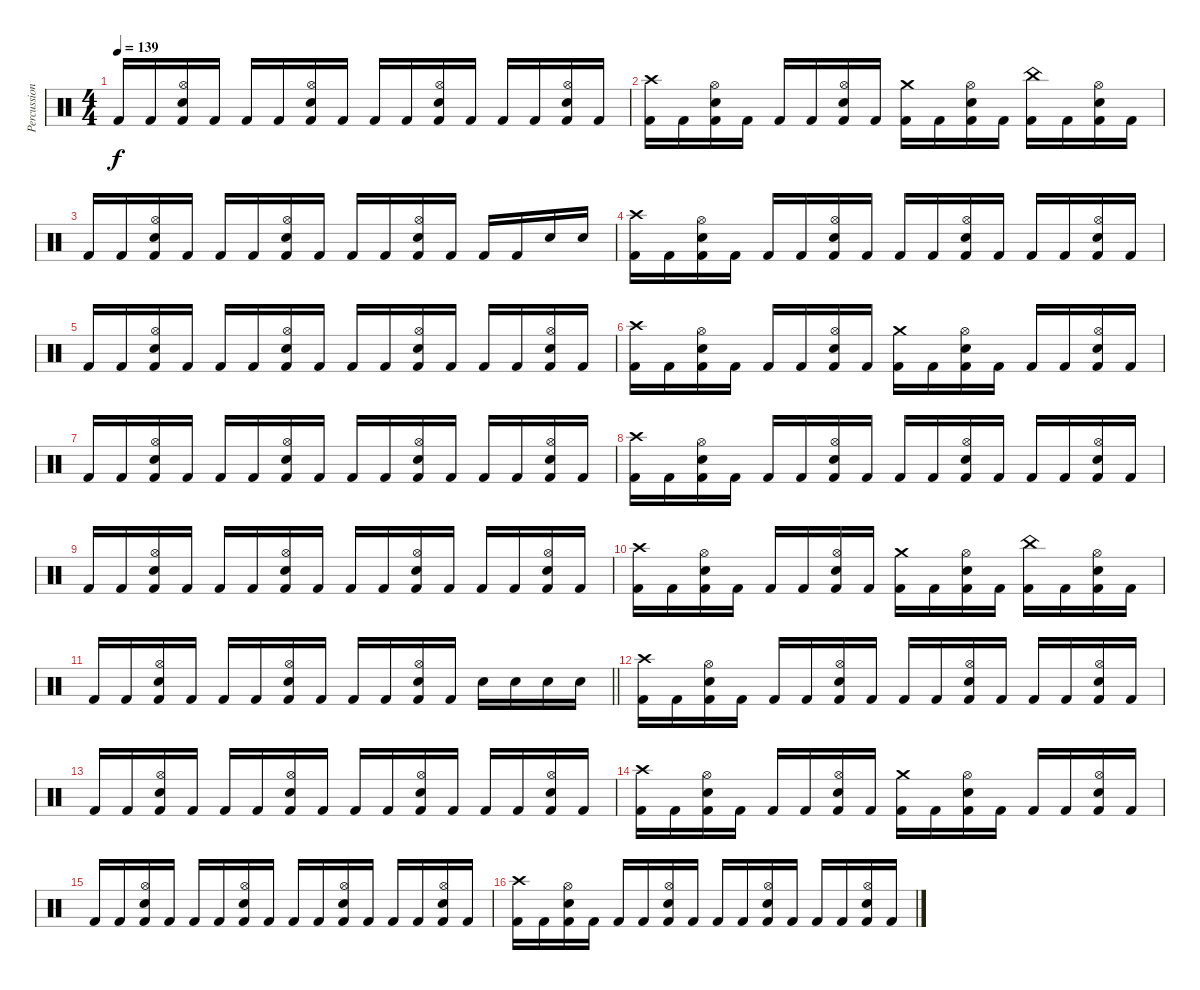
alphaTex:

\track ("Percussion" "Percussion") {instrument percussion}
\staff {score}
\articulation defaults
\ts (4 4)
\tempo 139
\clef neutral
\ks c "Kick (hit) 2".16{dy f} "Kick (hit) 2".16
("Hi-Hat (open)" "Electric Snare (hit)" "Kick (hit) 2").16 "Kick (hit) 2".16 "Kick (hit) 2".16 "Kick (hit) 2".16 ("Hi-Hat (open)" "Electric Snare (hit)" "Kick (hit) 2").16 "Kick (hit) 2".16 "Kick (hit) 2".16 "Kick (hit) 2".16 ("Hi-Hat (open)" "Electric Snare (hit)" "Kick (hit) 2").16 "Kick (hit) 2".16 "Kick (hit) 2".16 "Kick (hit) 2".16 ("Hi-Hat (open)" "Electric Snare (hit)" "Kick (hit) 2").16 "Kick (hit) 2".16 |
("Crash high (hit)" "Kick (hit) 2").16 "Kick (hit) 2".16 ("Hi-Hat (open)" "Electric Snare (hit)" "Kick (hit) 2").16 "Kick (hit) 2".16 "Kick (hit) 2".16 "Kick (hit) 2".16 ("Hi-Hat (open)" "Electric Snare (hit)" "Kick (hit) 2").16 "Kick (hit) 2".16 ("Crash medium (hit)" "Kick (hit) 2").16 "Kick (hit) 2".16 ("Hi-Hat (open)" "Electric Snare (hit)" "Kick (hit) 2").16 "Kick (hit) 2".16 ("China (hit)" "Kick (hit) 2").16 "Kick (hit) 2".16 ("Hi-Hat (open)" "Electric Snare (hit)" "Kick (hit) 2").16 "Kick (hit) 2".16 |
"Kick (hit) 2".16 "Kick (hit) 2".16 ("Hi-Hat (open)" "Electric Snare (hit)" "Kick (hit) 2").16 "Kick (hit) 2".16 "Kick (hit) 2".16 "Kick (hit) 2".16 ("Hi-Hat (open)" "Electric Snare (hit)" "Kick (hit) 2").16 "Kick (hit) 2".16 "Kick (hit) 2".16 "Kick (hit) 2".16 ("Hi-Hat (open)" "Electric Snare (hit)" "Kick (hit) 2").16 "Kick (hit) 2".16 "Kick (hit) 2".16 "Kick (hit) 2".16 "Electric Snare (hit)".16 "Electric Snare (hit)".16 |
("Crash high (hit)" "Kick (hit) 2").16 "Kick (hit) 2".16 ("Hi-Hat (open)" "Electric Snare (hit)" "Kick (hit) 2").16 "Kick (hit) 2".16 "Kick (hit) 2".16 "Kick (hit) 2".16 ("Hi-Hat (open)" "Electric Snare (hit)" "Kick (hit) 2").16 "Kick (hit) 2".16 "Kick (hit) 2".16 "Kick (hit) 2".16 ("Hi-Hat (open)" "Electric Snare (hit)" "Kick (hit) 2").16 "Kick (hit) 2".16 "Kick (hit) 2".16 "Kick (hit) 2".16 ("Hi-Hat (open)" "Electric Snare (hit)" "Kick (hit) 2").16 "Kick (hit) 2".16 |
"Kick (hit) 2".16 "Kick (hit) 2".16 ("Hi-Hat (open)" "Electric Snare (hit)" "Kick (hit) 2").16 "Kick (hit) 2".16 "Kick (hit) 2".16 "Kick (hit) 2".16 ("Hi-Hat (open)" "Electric Snare (hit)" "Kick (hit) 2").16 "Kick (hit) 2".16 "Kick (hit) 2".16 "Kick (hit) 2".16 ("Hi-Hat (open)" "Electric Snare (hit)" "Kick (hit) 2").16 "Kick (hit) 2".16 "Kick (hit) 2".16 "Kick (hit) 2".16 ("Hi-Hat (open)" "Electric Snare (hit)" "Kick (hit) 2").16 "Kick (hit) 2".16 |
("Crash high (hit)" "Kick (hit) 2").16 "Kick (hit) 2".16 ("Hi-Hat (open)" "Electric Snare (hit)" "Kick (hit) 2").16 "Kick (hit) 2".16 "Kick (hit) 2".16 "Kick (hit) 2".16 ("Hi-Hat (open)" "Electric Snare (hit)" "Kick (hit) 2").16 "Kick (hit) 2".16 ("Crash medium (hit)" "Kick (hit) 2").16 "Kick (hit) 2".16 ("Hi-Hat (open)" "Electric Snare (hit)" "Kick (hit) 2").16 "Kick (hit) 2".16 "Kick (hit) 2".16 "Kick (hit) 2".16 ("Hi-Hat (open)" "Electric Snare (hit)" "Kick (hit) 2").16 "Kick (hit) 2".16 |
"Kick (hit) 2".16 "Kick (hit) 2".16 ("Hi-Hat (open)" "Electric Snare (hit)" "Kick (hit) 2").16 "Kick (hit) 2".16 "Kick (hit) 2".16 "Kick (hit) 2".16 ("Hi-Hat (open)" "Electric Snare (hit)" "Kick (hit) 2").16 "Kick (hit) 2".16 "Kick (hit) 2".16 "Kick (hit) 2".16 ("Hi-Hat (open)" "Electric Snare (hit)" "Kick (hit) 2").16 "Kick (hit) 2".16 "Kick (hit) 2".16 "Kick (hit) 2".16 ("Hi-Hat (open)" "Electric Snare (hit)" "Kick (hit) 2").16 "Kick (hit) 2".16 |
("Crash high (hit)" "Kick (hit) 2").16 "Kick (hit) 2".16 ("Hi-Hat (open)" "Electric Snare (hit)" "Kick (hit) 2").16 "Kick (hit) 2".16 "Kick (hit) 2".16 "Kick (hit) 2".16 ("Hi-Hat (open)" "Electric Snare (hit)" "Kick (hit) 2").16 "Kick (hit) 2".16 "Kick (hit) 2".16 "Kick (hit) 2".16 ("Hi-Hat (open)" "Electric Snare (hit)" "Kick (hit) 2").16 "Kick (hit) 2".16 "Kick (hit) 2".16 "Kick (hit) 2".16 ("Hi-Hat (open)" "Electric Snare (hit)" "Kick (hit) 2").16 "Kick (hit) 2".16 |
"Kick (hit) 2".16 "Kick (hit) 2".16 ("Hi-Hat (open)" "Electric Snare (hit)" "Kick (hit) 2").16 "Kick (hit) 2".16 "Kick (hit) 2".16 "Kick (hit) 2".16 ("Hi-Hat (open)" "Electric Snare (hit)" "Kick (hit) 2").16 "Kick (hit) 2".16 "Kick (hit) 2".16 "Kick (hit) 2".16 ("Hi-Hat (open)" "Electric Snare (hit)" "Kick (hit) 2").16 "Kick (hit) 2".16 "Kick (hit) 2".16 "Kick (hit) 2".16 ("Hi-Hat (open)" "Electric Snare (hit)" "Kick (hit) 2").16 "Kick (hit) 2".16 |
("Crash high (hit)" "Kick (hit) 2").16 "Kick (hit) 2".16 ("Hi-Hat (open)" "Electric Snare (hit)" "Kick (hit) 2").16 "Kick (hit) 2".16 "Kick (hit) 2".16 "Kick (hit) 2".16 ("Hi-Hat (open)" "Electric Snare (hit)" "Kick (hit) 2").16 "Kick (hit) 2".16 ("Crash medium (hit)" "Kick (hit) 2").16 "Kick (hit) 2".16 ("Hi-Hat (open)" "Electric Snare (hit)" "Kick (hit) 2").16 "Kick (hit) 2".16 ("China (hit)" "Kick (hit) 2").16 "Kick (hit) 2".16 ("Hi-Hat (open)" "Electric Snare (hit)" "Kick (hit) 2").16 "Kick (hit) 2".16 |
\barLineRight lightlight "Kick (hit) 2".16 "Kick (hit) 2".16
("Hi-Hat (open)" "Electric Snare (hit)" "Kick (hit) 2").16 "Kick (hit) 2".16 "Kick (hit) 2".16 "Kick (hit) 2".16 ("Hi-Hat (open)" "Electric Snare (hit)" "Kick (hit) 2").16 "Kick (hit) 2".16 "Kick (hit) 2".16 "Kick (hit) 2".16 ("Hi-Hat (open)" "Electric Snare (hit)" "Kick (hit) 2").16 "Kick (hit) 2".16 "Electric Snare (hit)".16 "Electric Snare (hit)".16 "Electric Snare (hit)".16 "Electric Snare (hit)".16 |
("Crash high (hit)" "Kick (hit) 2").16 "Kick (hit) 2".16 ("Hi-Hat (open)" "Electric Snare (hit)" "Kick (hit) 2").16 "Kick (hit) 2".16 "Kick (hit) 2".16 "Kick (hit) 2".16 ("Hi-Hat (open)" "Electric Snare (hit)" "Kick (hit) 2").16 "Kick (hit) 2".16 "Kick (hit) 2".16 "Kick (hit) 2".16 ("Hi-Hat (open)" "Electric Snare (hit)" "Kick (hit) 2").16 "Kick (hit) 2".16 "Kick (hit) 2".16 "Kick (hit) 2".16 ("Hi-Hat (open)" "Electric Snare (hit)" "Kick (hit) 2").16 "Kick (hit) 2".16 |
"Kick (hit) 2".16 "Kick (hit) 2".16 ("Hi-Hat (open)" "Electric Snare (hit)" "Kick (hit) 2").16 "Kick (hit) 2".16 "Kick (hit) 2".16 "Kick (hit) 2".16 ("Hi-Hat (open)" "Electric Snare (hit)" "Kick (hit) 2").16 "Kick (hit) 2".16 "Kick (hit) 2".16 "Kick (hit) 2".16 ("Hi-Hat (open)" "Electric Snare (hit)" "Kick (hit) 2").16 "Kick (hit) 2".16 "Kick (hit) 2".16 "Kick (hit) 2".16 ("Hi-Hat (open)" "Electric Snare (hit)" "Kick (hit) 2").16 "Kick (hit) 2".16 |
("Crash high (hit)" "Kick (hit) 2").16 "Kick (hit) 2".16 ("Hi-Hat (open)" "Electric Snare (hit)" "Kick (hit) 2").16 "Kick (hit) 2".16 "Kick (hit) 2".16 "Kick (hit) 2".16 ("Hi-Hat (open)" "Electric Snare (hit)" "Kick (hit) 2").16 "Kick (hit) 2".16 ("Crash medium (hit)" "Kick (hit) 2").16 "Kick (hit) 2".16 ("Hi-Hat (open)" "Electric Snare (hit)" "Kick (hit) 2").16 "Kick (hit) 2".16 "Kick (hit) 2".16 "Kick (hit) 2".16 ("Hi-Hat (open)" "Electric Snare (hit)" "Kick (hit) 2").16 "Kick (hit) 2".16 |
"Kick (hit) 2".16 "Kick (hit) 2".16 ("Hi-Hat (open)" "Electric Snare (hit)" "Kick (hit) 2").16 "Kick (hit) 2".16 "Kick (hit) 2".16 "Kick (hit) 2".16 ("Hi-Hat (open)" "Electric Snare (hit)" "Kick (hit) 2").16 "Kick (hit) 2".16 "Kick (hit) 2".16 "Kick (hit) 2".16 ("Hi-Hat (open)" "Electric Snare (hit)" "Kick (hit) 2").16 "Kick (hit) 2".16 "Kick (hit) 2".16 "Kick (hit) 2".16 ("Hi-Hat (open)" "Electric Snare (hit)" "Kick (hit) 2").16 "Kick (hit) 2".16 |
("Crash high (hit)" "Kick (hit) 2").16 "Kick (hit) 2".16 ("Hi-Hat (open)" "Electric Snare (hit)" "Kick (hit) 2").16 "Kick (hit) 2".16 "Kick (hit) 2".16 "Kick (hit) 2".16 ("Hi-Hat (open)" "Electric Snare (hit)" "Kick (hit) 2").16 "Kick (hit) 2".16 "Kick (hit) 2".16 "Kick (hit) 2".16 ("Hi-Hat (open)" "Electric Snare (hit)" "Kick (hit) 2").16 "Kick (hit) 2".16 "Kick (hit) 2".16 "Kick (hit) 2".16 ("Hi-Hat (open)" "Electric Snare (hit)" "Kick (hit) 2").16 "Kick (hit) 2".16
